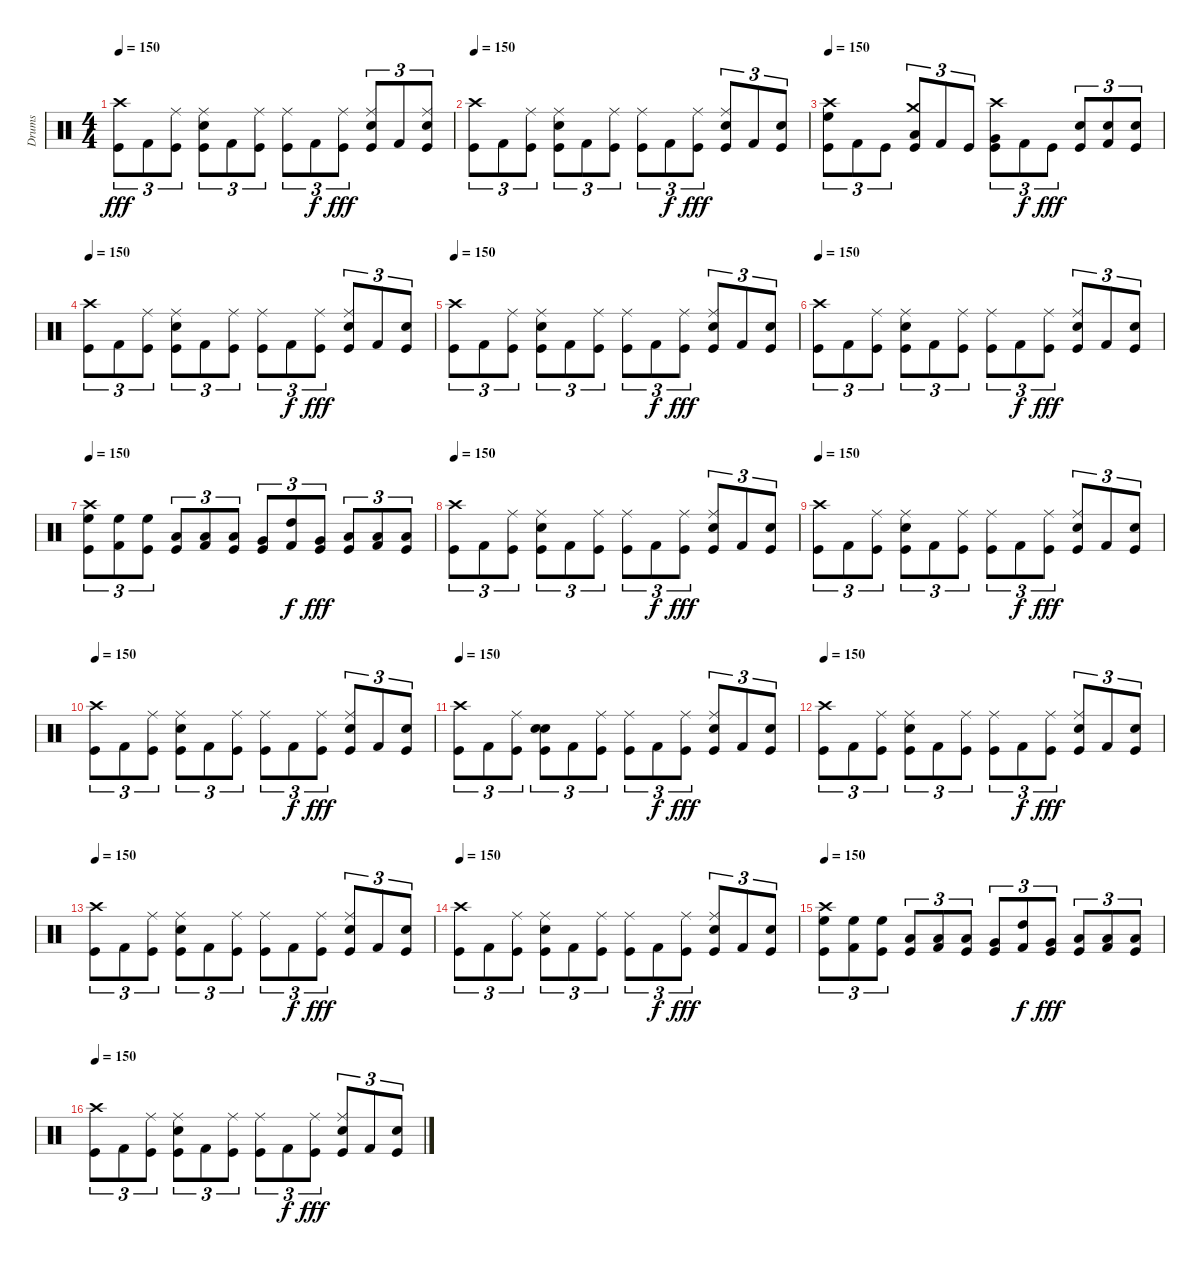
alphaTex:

\track ("Drums" "Drums") {instrument percussion}
\staff {score}
\articulation defaults
\ts (4 4)
\tempo 150
\clef neutral
\ks c
("Crash high (hit)" "Kick (hit)").8{tu (3 2) dy fff} "Kick (hit) 2".8{tu (3 2)} ("Ride (middle)" "Kick (hit)").8{tu (3 2)} ("Ride (middle)" "Snare (hit) 2" "Kick (hit)").8{tu (3 2)} "Kick (hit) 2".8{tu (3 2)} ("Ride (middle)" "Kick (hit)").8{tu (3 2)} ("Ride (middle)" "Kick (hit)").8{tu (3 2)} "Kick (hit) 2".8{tu (3 2) dy f} ("Ride (middle)" "Kick (hit)").8{tu (3 2) dy fff} ("Ride (middle)" "Snare (hit) 2" "Kick (hit)").8{tu (3 2)} "Kick (hit) 2".8{tu (3 2)} ("Ride (middle)" "Snare (hit) 2" "Kick (hit)").8{tu (3 2)} |
\tempo 150
("Crash high (hit)" "Kick (hit)").8{tu (3 2)} "Kick (hit) 2".8{tu (3 2)} ("Ride (middle)" "Kick (hit)").8{tu (3 2)} ("Ride (middle)" "Snare (hit) 2" "Kick (hit)").8{tu (3 2)} "Kick (hit) 2".8{tu (3 2)} ("Ride (middle)" "Kick (hit)").8{tu (3 2)} ("Ride (middle)" "Kick (hit)").8{tu (3 2)} "Kick (hit) 2".8{tu (3 2) dy f} ("Ride (middle)" "Kick (hit)").8{tu (3 2) dy fff} ("Ride (middle)" "Snare (hit) 2" "Kick (hit)").8{tu (3 2)} "Kick (hit) 2".8{tu (3 2)} ("Snare (hit) 2" "Kick (hit)").8{tu (3 2)} |
\tempo 150
("Crash high (hit)" "High Floor Tom (hit)" "Kick (hit)").8{tu (3 2)} "Kick (hit) 2".8{tu (3 2)} "Kick (hit)".8{tu (3 2)} ("Crash medium (hit)" "Low Tom (hit)" "Kick (hit)").8{tu (3 2)} "Kick (hit) 2".8{tu (3 2)} "Kick (hit)".8{tu (3 2)} ("Crash high (hit)" "Very Low Tom (hit)" "Kick (hit)").8{tu (3 2)} "Kick (hit) 2".8{tu (3 2) dy f} "Kick (hit)".8{tu (3 2) dy fff} ("Snare (hit) 2" "Kick (hit)").8{tu (3 2)} ("Snare (hit) 2" "Kick (hit) 2").8{tu (3 2)} ("Snare (hit) 2" "Kick (hit)").8{tu (3 2)} |
\tempo 150
("Crash high (hit)" "Kick (hit)").8{tu (3 2)} "Kick (hit) 2".8{tu (3 2)} ("Ride (middle)" "Kick (hit)").8{tu (3 2)} ("Ride (middle)" "Snare (hit) 2" "Kick (hit)").8{tu (3 2)} "Kick (hit) 2".8{tu (3 2)} ("Ride (middle)" "Kick (hit)").8{tu (3 2)} ("Ride (middle)" "Kick (hit)").8{tu (3 2)} "Kick (hit) 2".8{tu (3 2) dy f} ("Ride (middle)" "Kick (hit)").8{tu (3 2) dy fff} ("Ride (middle)" "Snare (hit) 2" "Kick (hit)").8{tu (3 2)} "Kick (hit) 2".8{tu (3 2)} ("Snare (hit) 2" "Kick (hit)").8{tu (3 2)} |
\tempo 150
("Crash high (hit)" "Kick (hit)").8{tu (3 2)} "Kick (hit) 2".8{tu (3 2)} ("Ride (middle)" "Kick (hit)").8{tu (3 2)} ("Ride (middle)" "Snare (hit) 2" "Kick (hit)").8{tu (3 2)} "Kick (hit) 2".8{tu (3 2)} ("Ride (middle)" "Kick (hit)").8{tu (3 2)} ("Ride (middle)" "Kick (hit)").8{tu (3 2)} "Kick (hit) 2".8{tu (3 2) dy f} ("Ride (middle)" "Kick (hit)").8{tu (3 2) dy fff} ("Ride (middle)" "Snare (hit) 2" "Kick (hit)").8{tu (3 2)} "Kick (hit) 2".8{tu (3 2)} ("Snare (hit) 2" "Kick (hit)").8{tu (3 2)} |
\tempo 150
("Crash high (hit)" "Kick (hit)").8{tu (3 2)} "Kick (hit) 2".8{tu (3 2)} ("Ride (middle)" "Kick (hit)").8{tu (3 2)} ("Ride (middle)" "Snare (hit) 2" "Kick (hit)").8{tu (3 2)} "Kick (hit) 2".8{tu (3 2)} ("Ride (middle)" "Kick (hit)").8{tu (3 2)} ("Ride (middle)" "Kick (hit)").8{tu (3 2)} "Kick (hit) 2".8{tu (3 2) dy f} ("Ride (middle)" "Kick (hit)").8{tu (3 2) dy fff} ("Ride (middle)" "Snare (hit) 2" "Kick (hit)").8{tu (3 2)} "Kick (hit) 2".8{tu (3 2)} ("Snare (hit) 2" "Kick (hit)").8{tu (3 2)} |
\tempo 150
("Crash high (hit)" "High Floor Tom (hit)" "Kick (hit)").8{tu (3 2)} ("High Floor Tom (hit)" "Kick (hit) 2").8{tu (3 2)} ("High Floor Tom (hit)" "Kick (hit)").8{tu (3 2)} ("Low Tom (hit)" "Kick (hit)").8{tu (3 2)} ("Low Tom (hit)" "Kick (hit) 2").8{tu (3 2)} ("Low Tom (hit)" "Kick (hit)").8{tu (3 2)} ("Very Low Tom (hit)" "Kick (hit)").8{tu (3 2)} ("High Tom (hit)" "Kick (hit) 2").8{tu (3 2) dy f} ("Very Low Tom (hit)" "Kick (hit)").8{tu (3 2) dy fff} ("Low Floor Tom (hit)" "Kick (hit)").8{tu (3 2)} ("Low Tom (hit)" "Kick (hit) 2").8{tu (3 2)} ("Low Tom (hit)" "Kick (hit)").8{tu (3 2)} |
\tempo 150
("Crash high (hit)" "Kick (hit)").8{tu (3 2)} "Kick (hit) 2".8{tu (3 2)} ("Ride (middle)" "Kick (hit)").8{tu (3 2)} ("Ride (middle)" "Snare (hit) 2" "Kick (hit)").8{tu (3 2)} "Kick (hit) 2".8{tu (3 2)} ("Ride (middle)" "Kick (hit)").8{tu (3 2)} ("Ride (middle)" "Kick (hit)").8{tu (3 2)} "Kick (hit) 2".8{tu (3 2) dy f} ("Ride (middle)" "Kick (hit)").8{tu (3 2) dy fff} ("Ride (middle)" "Snare (hit) 2" "Kick (hit)").8{tu (3 2)} "Kick (hit) 2".8{tu (3 2)} ("Snare (hit) 2" "Kick (hit)").8{tu (3 2)} |
\tempo 150
("Crash high (hit)" "Kick (hit)").8{tu (3 2)} "Kick (hit) 2".8{tu (3 2)} ("Ride (middle)" "Kick (hit)").8{tu (3 2)} ("Ride (middle)" "Snare (hit) 2" "Kick (hit)").8{tu (3 2)} "Kick (hit) 2".8{tu (3 2)} ("Ride (middle)" "Kick (hit)").8{tu (3 2)} ("Ride (middle)" "Kick (hit)").8{tu (3 2)} "Kick (hit) 2".8{tu (3 2) dy f} ("Ride (middle)" "Kick (hit)").8{tu (3 2) dy fff} ("Ride (middle)" "Snare (hit) 2" "Kick (hit)").8{tu (3 2)} "Kick (hit) 2".8{tu (3 2)} ("Snare (hit) 2" "Kick (hit)").8{tu (3 2)} |
\tempo 150
("Crash high (hit)" "Kick (hit)").8{tu (3 2)} "Kick (hit) 2".8{tu (3 2)} ("Ride (middle)" "Kick (hit)").8{tu (3 2)} ("Ride (middle)" "Snare (hit) 2" "Kick (hit)").8{tu (3 2)} "Kick (hit) 2".8{tu (3 2)} ("Ride (middle)" "Kick (hit)").8{tu (3 2)} ("Ride (middle)" "Kick (hit)").8{tu (3 2)} "Kick (hit) 2".8{tu (3 2) dy f} ("Ride (middle)" "Kick (hit)").8{tu (3 2) dy fff} ("Ride (middle)" "Snare (hit) 2" "Kick (hit)").8{tu (3 2)} "Kick (hit) 2".8{tu (3 2)} ("Snare (hit) 2" "Kick (hit)").8{tu (3 2)} |
\tempo 150
("Crash high (hit)" "Kick (hit)").8{tu (3 2)} "Kick (hit) 2".8{tu (3 2)} ("Ride (middle)" "Kick (hit)").8{tu (3 2)} ("Snare (hit)" "Snare (hit) 2" "Kick (hit)").8{tu (3 2)} "Kick (hit) 2".8{tu (3 2)} ("Ride (middle)" "Kick (hit)").8{tu (3 2)} ("Ride (middle)" "Kick (hit)").8{tu (3 2)} "Kick (hit) 2".8{tu (3 2) dy f} ("Ride (middle)" "Kick (hit)").8{tu (3 2) dy fff} ("Ride (middle)" "Snare (hit) 2" "Kick (hit)").8{tu (3 2)} "Kick (hit) 2".8{tu (3 2)} ("Snare (hit) 2" "Kick (hit)").8{tu (3 2)} |
\tempo 150
("Crash high (hit)" "Kick (hit)").8{tu (3 2)} "Kick (hit) 2".8{tu (3 2)} ("Ride (middle)" "Kick (hit)").8{tu (3 2)} ("Ride (middle)" "Snare (hit) 2" "Kick (hit)").8{tu (3 2)} "Kick (hit) 2".8{tu (3 2)} ("Ride (middle)" "Kick (hit)").8{tu (3 2)} ("Ride (middle)" "Kick (hit)").8{tu (3 2)} "Kick (hit) 2".8{tu (3 2) dy f} ("Ride (middle)" "Kick (hit)").8{tu (3 2) dy fff} ("Ride (middle)" "Snare (hit) 2" "Kick (hit)").8{tu (3 2)} "Kick (hit) 2".8{tu (3 2)} ("Snare (hit) 2" "Kick (hit)").8{tu (3 2)} |
\tempo 150
("Crash high (hit)" "Kick (hit)").8{tu (3 2)} "Kick (hit) 2".8{tu (3 2)} ("Ride (middle)" "Kick (hit)").8{tu (3 2)} ("Ride (middle)" "Snare (hit) 2" "Kick (hit)").8{tu (3 2)} "Kick (hit) 2".8{tu (3 2)} ("Ride (middle)" "Kick (hit)").8{tu (3 2)} ("Ride (middle)" "Kick (hit)").8{tu (3 2)} "Kick (hit) 2".8{tu (3 2) dy f} ("Ride (middle)" "Kick (hit)").8{tu (3 2) dy fff} ("Ride (middle)" "Snare (hit) 2" "Kick (hit)").8{tu (3 2)} "Kick (hit) 2".8{tu (3 2)} ("Snare (hit) 2" "Kick (hit)").8{tu (3 2)} |
\tempo 150
("Crash high (hit)" "Kick (hit)").8{tu (3 2)} "Kick (hit) 2".8{tu (3 2)} ("Ride (middle)" "Kick (hit)").8{tu (3 2)} ("Ride (middle)" "Snare (hit) 2" "Kick (hit)").8{tu (3 2)} "Kick (hit) 2".8{tu (3 2)} ("Ride (middle)" "Kick (hit)").8{tu (3 2)} ("Ride (middle)" "Kick (hit)").8{tu (3 2)} "Kick (hit) 2".8{tu (3 2) dy f} ("Ride (middle)" "Kick (hit)").8{tu (3 2) dy fff} ("Ride (middle)" "Snare (hit) 2" "Kick (hit)").8{tu (3 2)} "Kick (hit) 2".8{tu (3 2)} ("Snare (hit) 2" "Kick (hit)").8{tu (3 2)} |
\tempo 150
("Crash high (hit)" "High Floor Tom (hit)" "Kick (hit)").8{tu (3 2)} ("High Floor Tom (hit)" "Kick (hit) 2").8{tu (3 2)} ("High Floor Tom (hit)" "Kick (hit)").8{tu (3 2)} ("Low Tom (hit)" "Kick (hit)").8{tu (3 2)} ("Low Tom (hit)" "Kick (hit) 2").8{tu (3 2)} ("Low Tom (hit)" "Kick (hit)").8{tu (3 2)} ("Very Low Tom (hit)" "Kick (hit)").8{tu (3 2)} ("High Tom (hit)" "Kick (hit) 2").8{tu (3 2) dy f} ("Very Low Tom (hit)" "Kick (hit)").8{tu (3 2) dy fff} ("Low Floor Tom (hit)" "Kick (hit)").8{tu (3 2)} ("Low Tom (hit)" "Kick (hit) 2").8{tu (3 2)} ("Low Tom (hit)" "Kick (hit)").8{tu (3 2)} |
\tempo 150
("Crash high (hit)" "Kick (hit)").8{tu (3 2)} "Kick (hit) 2".8{tu (3 2)} ("Ride (middle)" "Kick (hit)").8{tu (3 2)} ("Ride (middle)" "Snare (hit) 2" "Kick (hit)").8{tu (3 2)} "Kick (hit) 2".8{tu (3 2)} ("Ride (middle)" "Kick (hit)").8{tu (3 2)} ("Ride (middle)" "Kick (hit)").8{tu (3 2)} "Kick (hit) 2".8{tu (3 2) dy f} ("Ride (middle)" "Kick (hit)").8{tu (3 2) dy fff} ("Ride (middle)" "Snare (hit) 2" "Kick (hit)").8{tu (3 2)} "Kick (hit) 2".8{tu (3 2)} ("Snare (hit) 2" "Kick (hit)").8{tu (3 2)}
